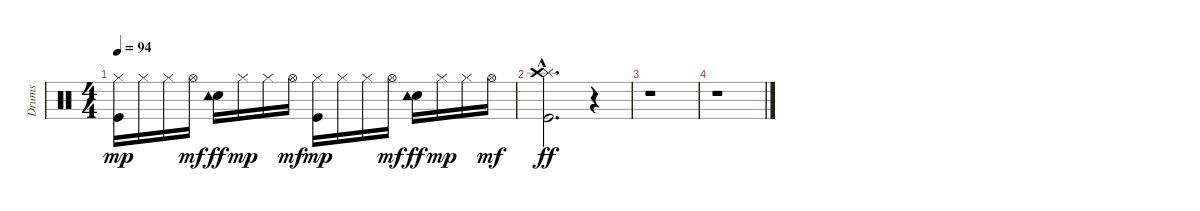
\track ("Drums" "Drums") {instrument percussion}
\staff {score}
\articulation defaults
\ts (4 4)
\tempo 94
\clef neutral
\ks c
("Hi-Hat (closed)" "Kick (hit)").16{dy mp} "Hi-Hat (closed)".16 "Hi-Hat (closed)".16 "Hi-Hat (open)".16{dy mf} ("Snare (hit) 2" "Tambourine (hit)").16{dy ff} "Hi-Hat (closed)".16{dy mp} "Hi-Hat (closed)".16 "Hi-Hat (open)".16{dy mf} ("Hi-Hat (closed)" "Kick (hit)").16{dy mp} "Hi-Hat (closed)".16 "Hi-Hat (closed)".16 "Hi-Hat (open)".16{dy mf} ("Snare (hit) 2" "Tambourine (hit)").16{dy ff} "Hi-Hat (closed)".16{dy mp} "Hi-Hat (closed)".16 "Hi-Hat (open)".16{dy mf} |
("Splash (hit)"{hac} "Kick (hit)"{hac} "Crash high (hit)"{hac}).2{d dy ff} r.4 |
r.1 |
r.1
